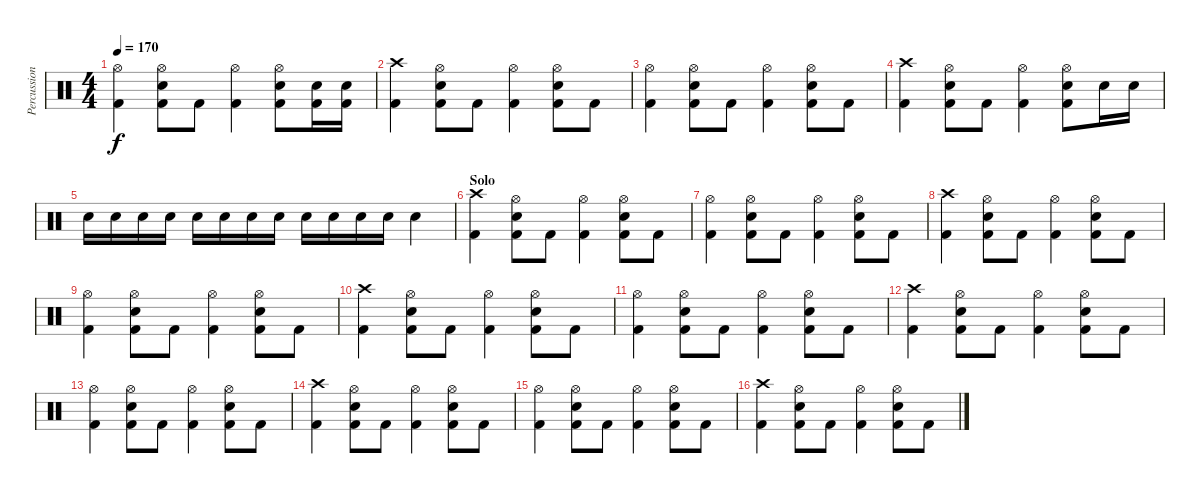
\track ("Percussion" "Percussion") {instrument percussion}
\staff {score}
\articulation defaults
\ts (4 4)
\tempo 170
\clef neutral
\ks c
("Hi-Hat (open)" "Kick (hit) 2").4{dy f} ("Hi-Hat (open)" "Snare (hit) 2" "Kick (hit) 2").8 "Kick (hit) 2".8 ("Hi-Hat (open)" "Kick (hit) 2").4 ("Hi-Hat (open)" "Snare (hit) 2" "Kick (hit) 2").8 ("Snare (hit) 2" "Kick (hit) 2").16 ("Snare (hit) 2" "Kick (hit) 2").16 |
("Crash high (hit)" "Kick (hit) 2").4 ("Hi-Hat (open)" "Snare (hit) 2" "Kick (hit) 2").8 "Kick (hit) 2".8 ("Hi-Hat (open)" "Kick (hit) 2").4 ("Hi-Hat (open)" "Snare (hit) 2" "Kick (hit) 2").8 "Kick (hit) 2".8 |
("Hi-Hat (open)" "Kick (hit) 2").4 ("Hi-Hat (open)" "Snare (hit) 2" "Kick (hit) 2").8 "Kick (hit) 2".8 ("Hi-Hat (open)" "Kick (hit) 2").4 ("Hi-Hat (open)" "Snare (hit) 2" "Kick (hit) 2").8 "Kick (hit) 2".8 |
("Crash high (hit)" "Kick (hit) 2").4 ("Hi-Hat (open)" "Snare (hit) 2" "Kick (hit) 2").8 "Kick (hit) 2".8 ("Hi-Hat (open)" "Kick (hit) 2").4 ("Hi-Hat (open)" "Snare (hit) 2" "Kick (hit) 2").8 "Snare (hit) 2".16 "Snare (hit) 2".16 |
"Snare (hit) 2".16 "Snare (hit) 2".16 "Snare (hit) 2".16 "Snare (hit) 2".16 "Snare (hit) 2".16 "Snare (hit) 2".16 "Snare (hit) 2".16 "Snare (hit) 2".16 "Snare (hit) 2".16 "Snare (hit) 2".16 "Snare (hit) 2".16 "Snare (hit) 2".16 "Snare (hit) 2".4 |
\section ("" "Solo")
("Crash high (hit)" "Kick (hit) 2").4 ("Hi-Hat (open)" "Snare (hit) 2" "Kick (hit) 2").8 "Kick (hit) 2".8 ("Hi-Hat (open)" "Kick (hit) 2").4 ("Hi-Hat (open)" "Snare (hit) 2" "Kick (hit) 2").8 "Kick (hit) 2".8 |
("Hi-Hat (open)" "Kick (hit) 2").4 ("Hi-Hat (open)" "Snare (hit) 2" "Kick (hit) 2").8 "Kick (hit) 2".8 ("Hi-Hat (open)" "Kick (hit) 2").4 ("Hi-Hat (open)" "Snare (hit) 2" "Kick (hit) 2").8 "Kick (hit) 2".8 |
("Crash high (hit)" "Kick (hit) 2").4 ("Hi-Hat (open)" "Snare (hit) 2" "Kick (hit) 2").8 "Kick (hit) 2".8 ("Hi-Hat (open)" "Kick (hit) 2").4 ("Hi-Hat (open)" "Snare (hit) 2" "Kick (hit) 2").8 "Kick (hit) 2".8 |
("Hi-Hat (open)" "Kick (hit) 2").4 ("Hi-Hat (open)" "Snare (hit) 2" "Kick (hit) 2").8 "Kick (hit) 2".8 ("Hi-Hat (open)" "Kick (hit) 2").4 ("Hi-Hat (open)" "Snare (hit) 2" "Kick (hit) 2").8 "Kick (hit) 2".8 |
("Crash high (hit)" "Kick (hit) 2").4 ("Hi-Hat (open)" "Snare (hit) 2" "Kick (hit) 2").8 "Kick (hit) 2".8 ("Hi-Hat (open)" "Kick (hit) 2").4 ("Hi-Hat (open)" "Snare (hit) 2" "Kick (hit) 2").8 "Kick (hit) 2".8 |
("Hi-Hat (open)" "Kick (hit) 2").4 ("Hi-Hat (open)" "Snare (hit) 2" "Kick (hit) 2").8 "Kick (hit) 2".8 ("Hi-Hat (open)" "Kick (hit) 2").4 ("Hi-Hat (open)" "Snare (hit) 2" "Kick (hit) 2").8 "Kick (hit) 2".8 |
("Crash high (hit)" "Kick (hit) 2").4 ("Hi-Hat (open)" "Snare (hit) 2" "Kick (hit) 2").8 "Kick (hit) 2".8 ("Hi-Hat (open)" "Kick (hit) 2").4 ("Hi-Hat (open)" "Snare (hit) 2" "Kick (hit) 2").8 "Kick (hit) 2".8 |
("Hi-Hat (open)" "Kick (hit) 2").4 ("Hi-Hat (open)" "Snare (hit) 2" "Kick (hit) 2").8 "Kick (hit) 2".8 ("Hi-Hat (open)" "Kick (hit) 2").4 ("Hi-Hat (open)" "Snare (hit) 2" "Kick (hit) 2").8 "Kick (hit) 2".8 |
("Crash high (hit)" "Kick (hit) 2").4 ("Hi-Hat (open)" "Snare (hit) 2" "Kick (hit) 2").8 "Kick (hit) 2".8 ("Hi-Hat (open)" "Kick (hit) 2").4 ("Hi-Hat (open)" "Snare (hit) 2" "Kick (hit) 2").8 "Kick (hit) 2".8 |
("Hi-Hat (open)" "Kick (hit) 2").4 ("Hi-Hat (open)" "Snare (hit) 2" "Kick (hit) 2").8 "Kick (hit) 2".8 ("Hi-Hat (open)" "Kick (hit) 2").4 ("Hi-Hat (open)" "Snare (hit) 2" "Kick (hit) 2").8 "Kick (hit) 2".8 |
("Crash high (hit)" "Kick (hit) 2").4 ("Hi-Hat (open)" "Snare (hit) 2" "Kick (hit) 2").8 "Kick (hit) 2".8 ("Hi-Hat (open)" "Kick (hit) 2").4 ("Hi-Hat (open)" "Snare (hit) 2" "Kick (hit) 2").8 "Kick (hit) 2".8
